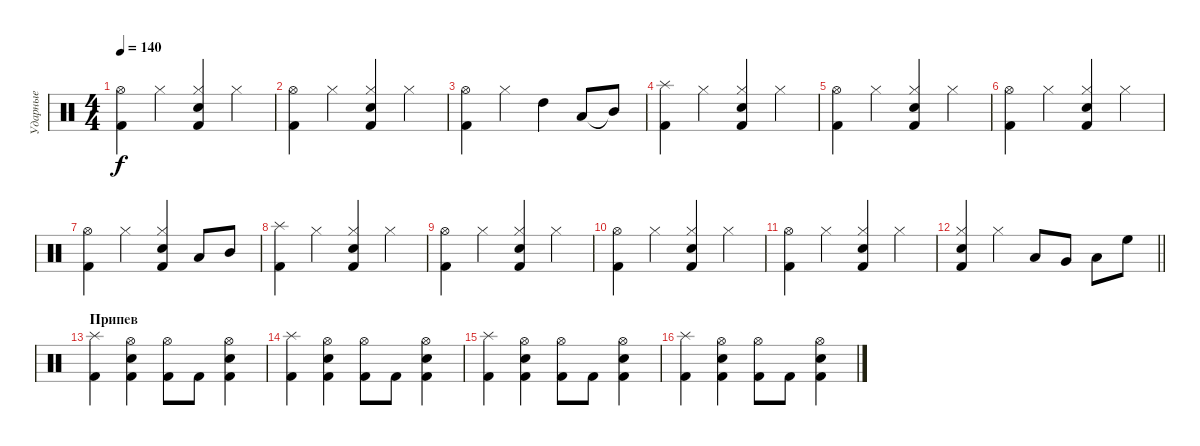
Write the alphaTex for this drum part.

\track ("Ударные" "Ударные") {instrument percussion}
\staff {score}
\articulation defaults
\ts (4 4)
\tempo 140
\clef neutral
\ks c
("Hi-Hat (open)" "Kick (hit) 2").4{dy f} "Hi-Hat (closed)".4 ("Hi-Hat (closed)" "Electric Snare (hit)" "Kick (hit) 2").4 "Hi-Hat (closed)".4 |
("Hi-Hat (open)" "Kick (hit) 2").4 "Hi-Hat (closed)".4 ("Hi-Hat (closed)" "Electric Snare (hit)" "Kick (hit) 2").4 "Hi-Hat (closed)".4 |
("Hi-Hat (open)" "Kick (hit) 2").4 "Hi-Hat (closed)".4 "High Tom (hit)".4 "Low Tom (hit)".8 "Mid Tom (hit)"{t}.8 |
("Splash (hit)" "Kick (hit) 2").4 "Hi-Hat (closed)".4 ("Hi-Hat (closed)" "Electric Snare (hit)" "Kick (hit) 2").4 "Hi-Hat (closed)".4 |
("Hi-Hat (open)" "Kick (hit) 2").4 "Hi-Hat (closed)".4 ("Hi-Hat (closed)" "Electric Snare (hit)" "Kick (hit) 2").4 "Hi-Hat (closed)".4 |
("Hi-Hat (open)" "Kick (hit) 2").4 "Hi-Hat (closed)".4 ("Hi-Hat (closed)" "Electric Snare (hit)" "Kick (hit) 2").4 "Hi-Hat (closed)".4 |
("Hi-Hat (open)" "Kick (hit) 2").4 "Hi-Hat (closed)".4 ("Hi-Hat (closed)" "Electric Snare (hit)" "Kick (hit) 2").4 "Low Tom (hit)".8 "Mid Tom (hit)".8 |
("Splash (hit)" "Kick (hit) 2").4 "Hi-Hat (closed)".4 ("Hi-Hat (closed)" "Electric Snare (hit)" "Kick (hit) 2").4 "Hi-Hat (closed)".4 |
("Hi-Hat (open)" "Kick (hit) 2").4 "Hi-Hat (closed)".4 ("Hi-Hat (closed)" "Electric Snare (hit)" "Kick (hit) 2").4 "Hi-Hat (closed)".4 |
("Hi-Hat (open)" "Kick (hit) 2").4 "Hi-Hat (closed)".4 ("Hi-Hat (closed)" "Electric Snare (hit)" "Kick (hit) 2").4 "Hi-Hat (closed)".4 |
("Hi-Hat (open)" "Kick (hit) 2").4 "Hi-Hat (closed)".4 ("Hi-Hat (closed)" "Electric Snare (hit)" "Kick (hit) 2").4 "Hi-Hat (closed)".4 |
\barLineRight lightlight
("Hi-Hat (closed)" "Electric Snare (hit)" "Kick (hit) 2").4 "Hi-Hat (closed)".4 "Low Floor Tom (hit)".8 "Very Low Tom (hit)".8 "Low Tom (hit)".8 "High Floor Tom (hit)".8 |
\section ("" "Припев")
("Splash (hit)" "Kick (hit) 2").4 ("Hi-Hat (open)" "Electric Snare (hit)" "Kick (hit) 2").4 ("Hi-Hat (open)" "Kick (hit) 2").8 "Kick (hit) 2".8 ("Hi-Hat (open)" "Electric Snare (hit)" "Kick (hit) 2").4 |
("Splash (hit)" "Kick (hit) 2").4 ("Hi-Hat (open)" "Electric Snare (hit)" "Kick (hit) 2").4 ("Hi-Hat (open)" "Kick (hit) 2").8 "Kick (hit) 2".8 ("Hi-Hat (open)" "Electric Snare (hit)" "Kick (hit) 2").4 |
("Splash (hit)" "Kick (hit) 2").4 ("Hi-Hat (open)" "Electric Snare (hit)" "Kick (hit) 2").4 ("Hi-Hat (open)" "Kick (hit) 2").8 "Kick (hit) 2".8 ("Hi-Hat (open)" "Electric Snare (hit)" "Kick (hit) 2").4 |
("Splash (hit)" "Kick (hit) 2").4 ("Hi-Hat (open)" "Electric Snare (hit)" "Kick (hit) 2").4 ("Hi-Hat (open)" "Kick (hit) 2").8 "Kick (hit) 2".8 ("Hi-Hat (open)" "Electric Snare (hit)" "Kick (hit) 2").4
